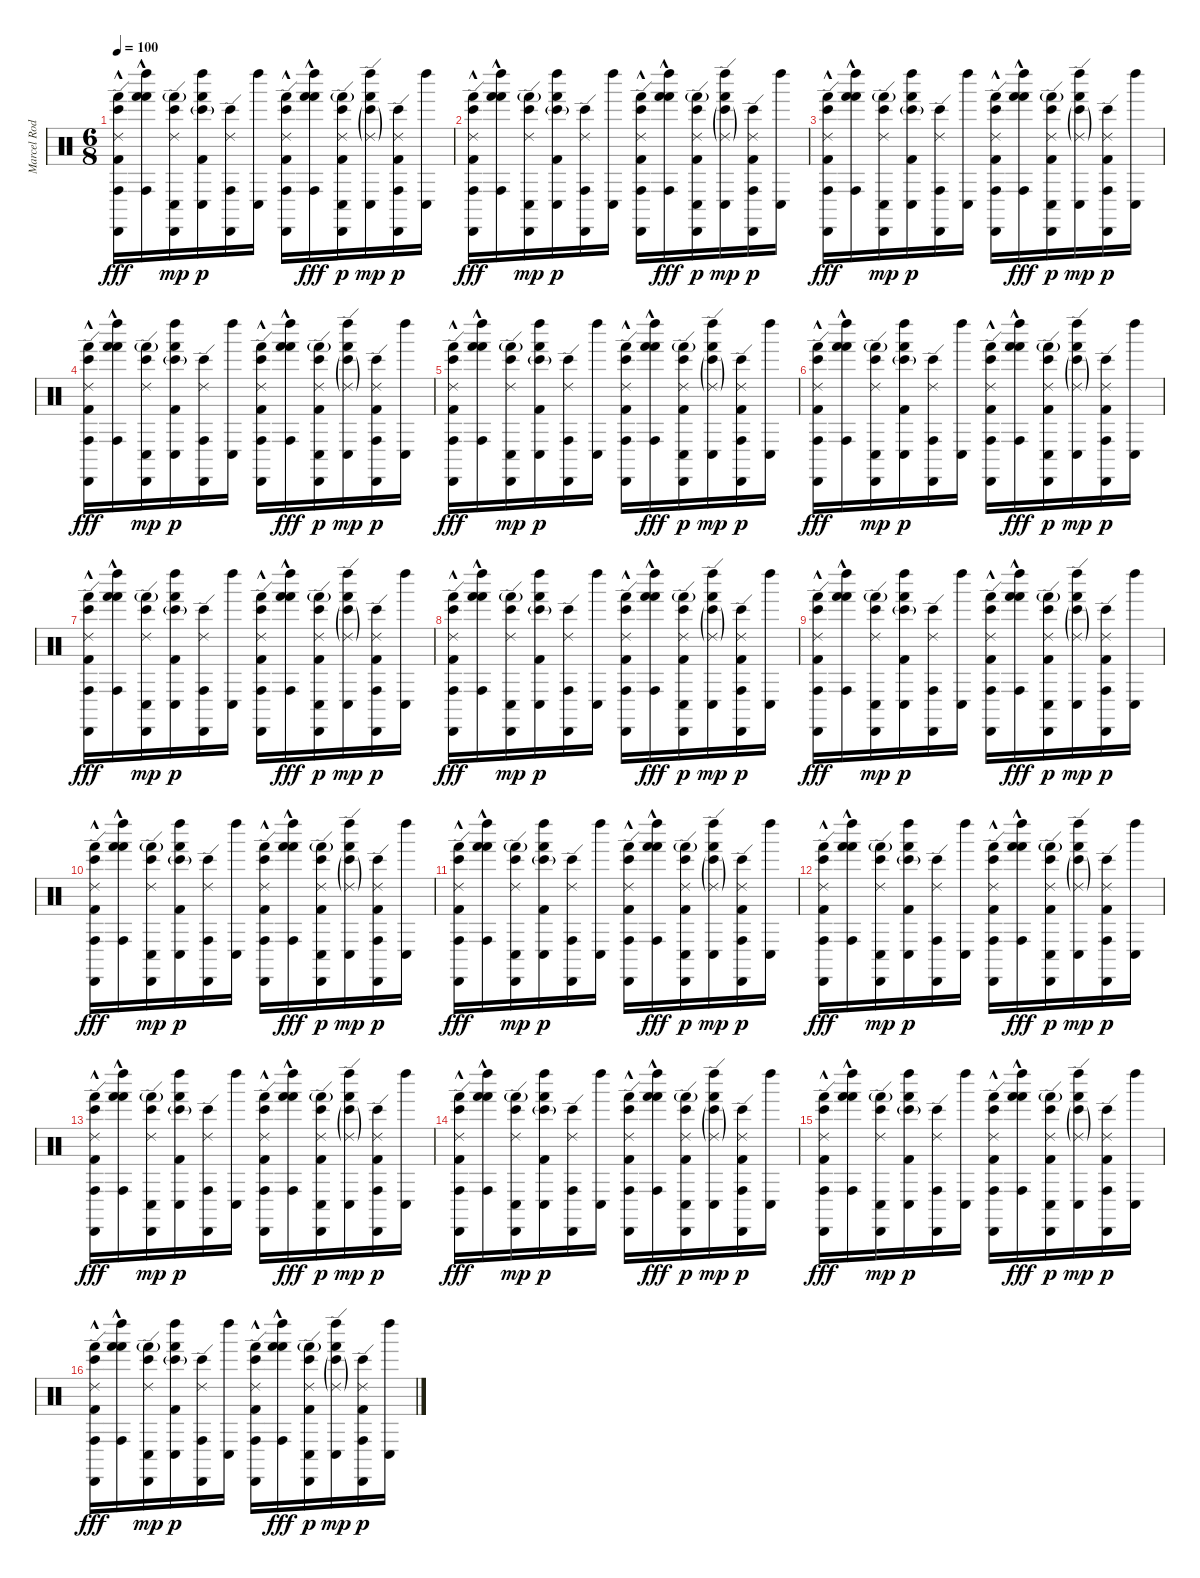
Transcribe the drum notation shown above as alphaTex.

\track ("Marcel Rodriguez & Thomas Pridgen" "Marcel Rod") {instrument percussion}
\staff {score}
\articulation defaults
\ts (6 8)
\tempo 100
\clef neutral
\ks c
("Ride (edge) 2" "Cabasa (hit)" "Bongo High (hit)" "Conga high (hit)" "Hand (hit)"{hac} "Kick (hit) 2").16{dy fff} ("Left Maraca (hit)" "Hand (hit)" "Conga high (hit)" "Hand (hit)"{hac}).16 ("Ride (edge) 2" "Cabasa (hit)" "Bongo High (hit)" "Conga low (hit)" "Hand (hit)"{g}).16{dy mp} ("Left Maraca (hit)" "Hand (hit)" "Conga low (hit)" "Bongo High (hit)"{g} "Kick (hit) 2").16{dy p} ("Ride (edge) 2" "Cabasa (hit)" "Bongo High (hit)" "Conga high (hit)").16 ("Left Maraca (hit)" "Conga low (hit)").16 ("Ride (edge) 2" "Cabasa (hit)" "Bongo High (hit)" "Conga high (hit)" "Hand (hit)"{hac} "Kick (hit) 2").16 ("Left Maraca (hit)" "Hand (hit)" "Conga high (hit)" "Hand (hit)"{hac}).16{dy fff} ("Ride (edge) 2" "Cabasa (hit)" "Bongo High (hit)" "Conga low (hit)" "Hand (hit)"{g} "Kick (hit) 2").16{dy p} ("Ride (edge) 2"{g} "Left Maraca (hit)" "Hand (hit)" "Conga low (hit)" "Bongo High (hit)"{g}).16{dy mp} ("Ride (edge) 2" "Cabasa (hit)" "Bongo High (hit)" "Conga high (hit)" "Kick (hit) 2").16{dy p} ("Left Maraca (hit)" "Conga low (hit)").16 |
("Ride (edge) 2" "Cabasa (hit)" "Bongo High (hit)" "Conga high (hit)" "Hand (hit)"{hac} "Kick (hit) 2").16{dy fff} ("Left Maraca (hit)" "Hand (hit)" "Conga high (hit)" "Hand (hit)"{hac}).16 ("Ride (edge) 2" "Cabasa (hit)" "Bongo High (hit)" "Conga low (hit)" "Hand (hit)"{g}).16{dy mp} ("Left Maraca (hit)" "Hand (hit)" "Conga low (hit)" "Bongo High (hit)"{g} "Kick (hit) 2").16{dy p} ("Ride (edge) 2" "Cabasa (hit)" "Bongo High (hit)" "Conga high (hit)").16 ("Left Maraca (hit)" "Conga low (hit)").16 ("Ride (edge) 2" "Cabasa (hit)" "Bongo High (hit)" "Conga high (hit)" "Hand (hit)"{hac} "Kick (hit) 2").16 ("Left Maraca (hit)" "Hand (hit)" "Conga high (hit)" "Hand (hit)"{hac}).16{dy fff} ("Ride (edge) 2" "Cabasa (hit)" "Bongo High (hit)" "Conga low (hit)" "Hand (hit)"{g} "Kick (hit) 2").16{dy p} ("Ride (edge) 2"{g} "Left Maraca (hit)" "Hand (hit)" "Conga low (hit)" "Bongo High (hit)"{g}).16{dy mp} ("Ride (edge) 2" "Cabasa (hit)" "Bongo High (hit)" "Conga high (hit)" "Kick (hit) 2").16{dy p} ("Left Maraca (hit)" "Conga low (hit)").16 |
("Ride (edge) 2" "Cabasa (hit)" "Bongo High (hit)" "Conga high (hit)" "Hand (hit)"{hac} "Kick (hit) 2").16{dy fff} ("Left Maraca (hit)" "Hand (hit)" "Conga high (hit)" "Hand (hit)"{hac}).16 ("Ride (edge) 2" "Cabasa (hit)" "Bongo High (hit)" "Conga low (hit)" "Hand (hit)"{g}).16{dy mp} ("Left Maraca (hit)" "Hand (hit)" "Conga low (hit)" "Bongo High (hit)"{g} "Kick (hit) 2").16{dy p} ("Ride (edge) 2" "Cabasa (hit)" "Bongo High (hit)" "Conga high (hit)").16 ("Left Maraca (hit)" "Conga low (hit)").16 ("Ride (edge) 2" "Cabasa (hit)" "Bongo High (hit)" "Conga high (hit)" "Hand (hit)"{hac} "Kick (hit) 2").16 ("Left Maraca (hit)" "Hand (hit)" "Conga high (hit)" "Hand (hit)"{hac}).16{dy fff} ("Ride (edge) 2" "Cabasa (hit)" "Bongo High (hit)" "Conga low (hit)" "Hand (hit)"{g} "Kick (hit) 2").16{dy p} ("Ride (edge) 2"{g} "Left Maraca (hit)" "Hand (hit)" "Conga low (hit)" "Bongo High (hit)"{g}).16{dy mp} ("Ride (edge) 2" "Cabasa (hit)" "Bongo High (hit)" "Conga high (hit)" "Kick (hit) 2").16{dy p} ("Left Maraca (hit)" "Conga low (hit)").16 |
("Ride (edge) 2" "Cabasa (hit)" "Bongo High (hit)" "Conga high (hit)" "Hand (hit)"{hac} "Kick (hit) 2").16{dy fff} ("Left Maraca (hit)" "Hand (hit)" "Conga high (hit)" "Hand (hit)"{hac}).16 ("Ride (edge) 2" "Cabasa (hit)" "Bongo High (hit)" "Conga low (hit)" "Hand (hit)"{g}).16{dy mp} ("Left Maraca (hit)" "Hand (hit)" "Conga low (hit)" "Bongo High (hit)"{g} "Kick (hit) 2").16{dy p} ("Ride (edge) 2" "Cabasa (hit)" "Bongo High (hit)" "Conga high (hit)").16 ("Left Maraca (hit)" "Conga low (hit)").16 ("Ride (edge) 2" "Cabasa (hit)" "Bongo High (hit)" "Conga high (hit)" "Hand (hit)"{hac} "Kick (hit) 2").16 ("Left Maraca (hit)" "Hand (hit)" "Conga high (hit)" "Hand (hit)"{hac}).16{dy fff} ("Ride (edge) 2" "Cabasa (hit)" "Bongo High (hit)" "Conga low (hit)" "Hand (hit)"{g} "Kick (hit) 2").16{dy p} ("Ride (edge) 2"{g} "Left Maraca (hit)" "Hand (hit)" "Conga low (hit)" "Bongo High (hit)"{g}).16{dy mp} ("Ride (edge) 2" "Cabasa (hit)" "Bongo High (hit)" "Conga high (hit)" "Kick (hit) 2").16{dy p} ("Left Maraca (hit)" "Conga low (hit)").16 |
("Ride (edge) 2" "Cabasa (hit)" "Bongo High (hit)" "Conga high (hit)" "Hand (hit)"{hac} "Kick (hit) 2").16{dy fff} ("Left Maraca (hit)" "Hand (hit)" "Conga high (hit)" "Hand (hit)"{hac}).16 ("Ride (edge) 2" "Cabasa (hit)" "Bongo High (hit)" "Conga low (hit)" "Hand (hit)"{g}).16{dy mp} ("Left Maraca (hit)" "Hand (hit)" "Conga low (hit)" "Bongo High (hit)"{g} "Kick (hit) 2").16{dy p} ("Ride (edge) 2" "Cabasa (hit)" "Bongo High (hit)" "Conga high (hit)").16 ("Left Maraca (hit)" "Conga low (hit)").16 ("Ride (edge) 2" "Cabasa (hit)" "Bongo High (hit)" "Conga high (hit)" "Hand (hit)"{hac} "Kick (hit) 2").16 ("Left Maraca (hit)" "Hand (hit)" "Conga high (hit)" "Hand (hit)"{hac}).16{dy fff} ("Ride (edge) 2" "Cabasa (hit)" "Bongo High (hit)" "Conga low (hit)" "Hand (hit)"{g} "Kick (hit) 2").16{dy p} ("Ride (edge) 2"{g} "Left Maraca (hit)" "Hand (hit)" "Conga low (hit)" "Bongo High (hit)"{g}).16{dy mp} ("Ride (edge) 2" "Cabasa (hit)" "Bongo High (hit)" "Conga high (hit)" "Kick (hit) 2").16{dy p} ("Left Maraca (hit)" "Conga low (hit)").16 |
("Ride (edge) 2" "Cabasa (hit)" "Bongo High (hit)" "Conga high (hit)" "Hand (hit)"{hac} "Kick (hit) 2").16{dy fff} ("Left Maraca (hit)" "Hand (hit)" "Conga high (hit)" "Hand (hit)"{hac}).16 ("Ride (edge) 2" "Cabasa (hit)" "Bongo High (hit)" "Conga low (hit)" "Hand (hit)"{g}).16{dy mp} ("Left Maraca (hit)" "Hand (hit)" "Conga low (hit)" "Bongo High (hit)"{g} "Kick (hit) 2").16{dy p} ("Ride (edge) 2" "Cabasa (hit)" "Bongo High (hit)" "Conga high (hit)").16 ("Left Maraca (hit)" "Conga low (hit)").16 ("Ride (edge) 2" "Cabasa (hit)" "Bongo High (hit)" "Conga high (hit)" "Hand (hit)"{hac} "Kick (hit) 2").16 ("Left Maraca (hit)" "Hand (hit)" "Conga high (hit)" "Hand (hit)"{hac}).16{dy fff} ("Ride (edge) 2" "Cabasa (hit)" "Bongo High (hit)" "Conga low (hit)" "Hand (hit)"{g} "Kick (hit) 2").16{dy p} ("Ride (edge) 2"{g} "Left Maraca (hit)" "Hand (hit)" "Conga low (hit)" "Bongo High (hit)"{g}).16{dy mp} ("Ride (edge) 2" "Cabasa (hit)" "Bongo High (hit)" "Conga high (hit)" "Kick (hit) 2").16{dy p} ("Left Maraca (hit)" "Conga low (hit)").16 |
("Ride (edge) 2" "Cabasa (hit)" "Bongo High (hit)" "Conga high (hit)" "Hand (hit)"{hac} "Kick (hit) 2").16{dy fff} ("Left Maraca (hit)" "Hand (hit)" "Conga high (hit)" "Hand (hit)"{hac}).16 ("Ride (edge) 2" "Cabasa (hit)" "Bongo High (hit)" "Conga low (hit)" "Hand (hit)"{g}).16{dy mp} ("Left Maraca (hit)" "Hand (hit)" "Conga low (hit)" "Bongo High (hit)"{g} "Kick (hit) 2").16{dy p} ("Ride (edge) 2" "Cabasa (hit)" "Bongo High (hit)" "Conga high (hit)").16 ("Left Maraca (hit)" "Conga low (hit)").16 ("Ride (edge) 2" "Cabasa (hit)" "Bongo High (hit)" "Conga high (hit)" "Hand (hit)"{hac} "Kick (hit) 2").16 ("Left Maraca (hit)" "Hand (hit)" "Conga high (hit)" "Hand (hit)"{hac}).16{dy fff} ("Ride (edge) 2" "Cabasa (hit)" "Bongo High (hit)" "Conga low (hit)" "Hand (hit)"{g} "Kick (hit) 2").16{dy p} ("Ride (edge) 2"{g} "Left Maraca (hit)" "Hand (hit)" "Conga low (hit)" "Bongo High (hit)"{g}).16{dy mp} ("Ride (edge) 2" "Cabasa (hit)" "Bongo High (hit)" "Conga high (hit)" "Kick (hit) 2").16{dy p} ("Left Maraca (hit)" "Conga low (hit)").16 |
("Ride (edge) 2" "Cabasa (hit)" "Bongo High (hit)" "Conga high (hit)" "Hand (hit)"{hac} "Kick (hit) 2").16{dy fff} ("Left Maraca (hit)" "Hand (hit)" "Conga high (hit)" "Hand (hit)"{hac}).16 ("Ride (edge) 2" "Cabasa (hit)" "Bongo High (hit)" "Conga low (hit)" "Hand (hit)"{g}).16{dy mp} ("Left Maraca (hit)" "Hand (hit)" "Conga low (hit)" "Bongo High (hit)"{g} "Kick (hit) 2").16{dy p} ("Ride (edge) 2" "Cabasa (hit)" "Bongo High (hit)" "Conga high (hit)").16 ("Left Maraca (hit)" "Conga low (hit)").16 ("Ride (edge) 2" "Cabasa (hit)" "Bongo High (hit)" "Conga high (hit)" "Hand (hit)"{hac} "Kick (hit) 2").16 ("Left Maraca (hit)" "Hand (hit)" "Conga high (hit)" "Hand (hit)"{hac}).16{dy fff} ("Ride (edge) 2" "Cabasa (hit)" "Bongo High (hit)" "Conga low (hit)" "Hand (hit)"{g} "Kick (hit) 2").16{dy p} ("Ride (edge) 2"{g} "Left Maraca (hit)" "Hand (hit)" "Conga low (hit)" "Bongo High (hit)"{g}).16{dy mp} ("Ride (edge) 2" "Cabasa (hit)" "Bongo High (hit)" "Conga high (hit)" "Kick (hit) 2").16{dy p} ("Left Maraca (hit)" "Conga low (hit)").16 |
("Ride (edge) 2" "Cabasa (hit)" "Bongo High (hit)" "Conga high (hit)" "Hand (hit)"{hac} "Kick (hit) 2").16{dy fff} ("Left Maraca (hit)" "Hand (hit)" "Conga high (hit)" "Hand (hit)"{hac}).16 ("Ride (edge) 2" "Cabasa (hit)" "Bongo High (hit)" "Conga low (hit)" "Hand (hit)"{g}).16{dy mp} ("Left Maraca (hit)" "Hand (hit)" "Conga low (hit)" "Bongo High (hit)"{g} "Kick (hit) 2").16{dy p} ("Ride (edge) 2" "Cabasa (hit)" "Bongo High (hit)" "Conga high (hit)").16 ("Left Maraca (hit)" "Conga low (hit)").16 ("Ride (edge) 2" "Cabasa (hit)" "Bongo High (hit)" "Conga high (hit)" "Hand (hit)"{hac} "Kick (hit) 2").16 ("Left Maraca (hit)" "Hand (hit)" "Conga high (hit)" "Hand (hit)"{hac}).16{dy fff} ("Ride (edge) 2" "Cabasa (hit)" "Bongo High (hit)" "Conga low (hit)" "Hand (hit)"{g} "Kick (hit) 2").16{dy p} ("Ride (edge) 2"{g} "Left Maraca (hit)" "Hand (hit)" "Conga low (hit)" "Bongo High (hit)"{g}).16{dy mp} ("Ride (edge) 2" "Cabasa (hit)" "Bongo High (hit)" "Conga high (hit)" "Kick (hit) 2").16{dy p} ("Left Maraca (hit)" "Conga low (hit)").16 |
("Ride (edge) 2" "Cabasa (hit)" "Bongo High (hit)" "Conga high (hit)" "Hand (hit)"{hac} "Kick (hit) 2").16{dy fff} ("Left Maraca (hit)" "Hand (hit)" "Conga high (hit)" "Hand (hit)"{hac}).16 ("Ride (edge) 2" "Cabasa (hit)" "Bongo High (hit)" "Conga low (hit)" "Hand (hit)"{g}).16{dy mp} ("Left Maraca (hit)" "Hand (hit)" "Conga low (hit)" "Bongo High (hit)"{g} "Kick (hit) 2").16{dy p} ("Ride (edge) 2" "Cabasa (hit)" "Bongo High (hit)" "Conga high (hit)").16 ("Left Maraca (hit)" "Conga low (hit)").16 ("Ride (edge) 2" "Cabasa (hit)" "Bongo High (hit)" "Conga high (hit)" "Hand (hit)"{hac} "Kick (hit) 2").16 ("Left Maraca (hit)" "Hand (hit)" "Conga high (hit)" "Hand (hit)"{hac}).16{dy fff} ("Ride (edge) 2" "Cabasa (hit)" "Bongo High (hit)" "Conga low (hit)" "Hand (hit)"{g} "Kick (hit) 2").16{dy p} ("Ride (edge) 2"{g} "Left Maraca (hit)" "Hand (hit)" "Conga low (hit)" "Bongo High (hit)"{g}).16{dy mp} ("Ride (edge) 2" "Cabasa (hit)" "Bongo High (hit)" "Conga high (hit)" "Kick (hit) 2").16{dy p} ("Left Maraca (hit)" "Conga low (hit)").16 |
("Ride (edge) 2" "Cabasa (hit)" "Bongo High (hit)" "Conga high (hit)" "Hand (hit)"{hac} "Kick (hit) 2").16{dy fff} ("Left Maraca (hit)" "Hand (hit)" "Conga high (hit)" "Hand (hit)"{hac}).16 ("Ride (edge) 2" "Cabasa (hit)" "Bongo High (hit)" "Conga low (hit)" "Hand (hit)"{g}).16{dy mp} ("Left Maraca (hit)" "Hand (hit)" "Conga low (hit)" "Bongo High (hit)"{g} "Kick (hit) 2").16{dy p} ("Ride (edge) 2" "Cabasa (hit)" "Bongo High (hit)" "Conga high (hit)").16 ("Left Maraca (hit)" "Conga low (hit)").16 ("Ride (edge) 2" "Cabasa (hit)" "Bongo High (hit)" "Conga high (hit)" "Hand (hit)"{hac} "Kick (hit) 2").16 ("Left Maraca (hit)" "Hand (hit)" "Conga high (hit)" "Hand (hit)"{hac}).16{dy fff} ("Ride (edge) 2" "Cabasa (hit)" "Bongo High (hit)" "Conga low (hit)" "Hand (hit)"{g} "Kick (hit) 2").16{dy p} ("Ride (edge) 2"{g} "Left Maraca (hit)" "Hand (hit)" "Conga low (hit)" "Bongo High (hit)"{g}).16{dy mp} ("Ride (edge) 2" "Cabasa (hit)" "Bongo High (hit)" "Conga high (hit)" "Kick (hit) 2").16{dy p} ("Left Maraca (hit)" "Conga low (hit)").16 |
("Ride (edge) 2" "Cabasa (hit)" "Bongo High (hit)" "Conga high (hit)" "Hand (hit)"{hac} "Kick (hit) 2").16{dy fff} ("Left Maraca (hit)" "Hand (hit)" "Conga high (hit)" "Hand (hit)"{hac}).16 ("Ride (edge) 2" "Cabasa (hit)" "Bongo High (hit)" "Conga low (hit)" "Hand (hit)"{g}).16{dy mp} ("Left Maraca (hit)" "Hand (hit)" "Conga low (hit)" "Bongo High (hit)"{g} "Kick (hit) 2").16{dy p} ("Ride (edge) 2" "Cabasa (hit)" "Bongo High (hit)" "Conga high (hit)").16 ("Left Maraca (hit)" "Conga low (hit)").16 ("Ride (edge) 2" "Cabasa (hit)" "Bongo High (hit)" "Conga high (hit)" "Hand (hit)"{hac} "Kick (hit) 2").16 ("Left Maraca (hit)" "Hand (hit)" "Conga high (hit)" "Hand (hit)"{hac}).16{dy fff} ("Ride (edge) 2" "Cabasa (hit)" "Bongo High (hit)" "Conga low (hit)" "Hand (hit)"{g} "Kick (hit) 2").16{dy p} ("Ride (edge) 2"{g} "Left Maraca (hit)" "Hand (hit)" "Conga low (hit)" "Bongo High (hit)"{g}).16{dy mp} ("Ride (edge) 2" "Cabasa (hit)" "Bongo High (hit)" "Conga high (hit)" "Kick (hit) 2").16{dy p} ("Left Maraca (hit)" "Conga low (hit)").16 |
("Ride (edge) 2" "Cabasa (hit)" "Bongo High (hit)" "Conga high (hit)" "Hand (hit)"{hac} "Kick (hit) 2").16{dy fff} ("Left Maraca (hit)" "Hand (hit)" "Conga high (hit)" "Hand (hit)"{hac}).16 ("Ride (edge) 2" "Cabasa (hit)" "Bongo High (hit)" "Conga low (hit)" "Hand (hit)"{g}).16{dy mp} ("Left Maraca (hit)" "Hand (hit)" "Conga low (hit)" "Bongo High (hit)"{g} "Kick (hit) 2").16{dy p} ("Ride (edge) 2" "Cabasa (hit)" "Bongo High (hit)" "Conga high (hit)").16 ("Left Maraca (hit)" "Conga low (hit)").16 ("Ride (edge) 2" "Cabasa (hit)" "Bongo High (hit)" "Conga high (hit)" "Hand (hit)"{hac} "Kick (hit) 2").16 ("Left Maraca (hit)" "Hand (hit)" "Conga high (hit)" "Hand (hit)"{hac}).16{dy fff} ("Ride (edge) 2" "Cabasa (hit)" "Bongo High (hit)" "Conga low (hit)" "Hand (hit)"{g} "Kick (hit) 2").16{dy p} ("Ride (edge) 2"{g} "Left Maraca (hit)" "Hand (hit)" "Conga low (hit)" "Bongo High (hit)"{g}).16{dy mp} ("Ride (edge) 2" "Cabasa (hit)" "Bongo High (hit)" "Conga high (hit)" "Kick (hit) 2").16{dy p} ("Left Maraca (hit)" "Conga low (hit)").16 |
("Ride (edge) 2" "Cabasa (hit)" "Bongo High (hit)" "Conga high (hit)" "Hand (hit)"{hac} "Kick (hit) 2").16{dy fff} ("Left Maraca (hit)" "Hand (hit)" "Conga high (hit)" "Hand (hit)"{hac}).16 ("Ride (edge) 2" "Cabasa (hit)" "Bongo High (hit)" "Conga low (hit)" "Hand (hit)"{g}).16{dy mp} ("Left Maraca (hit)" "Hand (hit)" "Conga low (hit)" "Bongo High (hit)"{g} "Kick (hit) 2").16{dy p} ("Ride (edge) 2" "Cabasa (hit)" "Bongo High (hit)" "Conga high (hit)").16 ("Left Maraca (hit)" "Conga low (hit)").16 ("Ride (edge) 2" "Cabasa (hit)" "Bongo High (hit)" "Conga high (hit)" "Hand (hit)"{hac} "Kick (hit) 2").16 ("Left Maraca (hit)" "Hand (hit)" "Conga high (hit)" "Hand (hit)"{hac}).16{dy fff} ("Ride (edge) 2" "Cabasa (hit)" "Bongo High (hit)" "Conga low (hit)" "Hand (hit)"{g} "Kick (hit) 2").16{dy p} ("Ride (edge) 2"{g} "Left Maraca (hit)" "Hand (hit)" "Conga low (hit)" "Bongo High (hit)"{g}).16{dy mp} ("Ride (edge) 2" "Cabasa (hit)" "Bongo High (hit)" "Conga high (hit)" "Kick (hit) 2").16{dy p} ("Left Maraca (hit)" "Conga low (hit)").16 |
("Ride (edge) 2" "Cabasa (hit)" "Bongo High (hit)" "Conga high (hit)" "Hand (hit)"{hac} "Kick (hit) 2").16{dy fff} ("Left Maraca (hit)" "Hand (hit)" "Conga high (hit)" "Hand (hit)"{hac}).16 ("Ride (edge) 2" "Cabasa (hit)" "Bongo High (hit)" "Conga low (hit)" "Hand (hit)"{g}).16{dy mp} ("Left Maraca (hit)" "Hand (hit)" "Conga low (hit)" "Bongo High (hit)"{g} "Kick (hit) 2").16{dy p} ("Ride (edge) 2" "Cabasa (hit)" "Bongo High (hit)" "Conga high (hit)").16 ("Left Maraca (hit)" "Conga low (hit)").16 ("Ride (edge) 2" "Cabasa (hit)" "Bongo High (hit)" "Conga high (hit)" "Hand (hit)"{hac} "Kick (hit) 2").16 ("Left Maraca (hit)" "Hand (hit)" "Conga high (hit)" "Hand (hit)"{hac}).16{dy fff} ("Ride (edge) 2" "Cabasa (hit)" "Bongo High (hit)" "Conga low (hit)" "Hand (hit)"{g} "Kick (hit) 2").16{dy p} ("Ride (edge) 2"{g} "Left Maraca (hit)" "Hand (hit)" "Conga low (hit)" "Bongo High (hit)"{g}).16{dy mp} ("Ride (edge) 2" "Cabasa (hit)" "Bongo High (hit)" "Conga high (hit)" "Kick (hit) 2").16{dy p} ("Left Maraca (hit)" "Conga low (hit)").16 |
("Ride (edge) 2" "Cabasa (hit)" "Bongo High (hit)" "Conga high (hit)" "Hand (hit)"{hac} "Kick (hit) 2").16{dy fff} ("Left Maraca (hit)" "Hand (hit)" "Conga high (hit)" "Hand (hit)"{hac}).16 ("Ride (edge) 2" "Cabasa (hit)" "Bongo High (hit)" "Conga low (hit)" "Hand (hit)"{g}).16{dy mp} ("Left Maraca (hit)" "Hand (hit)" "Conga low (hit)" "Bongo High (hit)"{g} "Kick (hit) 2").16{dy p} ("Ride (edge) 2" "Cabasa (hit)" "Bongo High (hit)" "Conga high (hit)").16 ("Left Maraca (hit)" "Conga low (hit)").16 ("Ride (edge) 2" "Cabasa (hit)" "Bongo High (hit)" "Conga high (hit)" "Hand (hit)"{hac} "Kick (hit) 2").16 ("Left Maraca (hit)" "Hand (hit)" "Conga high (hit)" "Hand (hit)"{hac}).16{dy fff} ("Ride (edge) 2" "Cabasa (hit)" "Bongo High (hit)" "Conga low (hit)" "Hand (hit)"{g} "Kick (hit) 2").16{dy p} ("Ride (edge) 2"{g} "Left Maraca (hit)" "Hand (hit)" "Conga low (hit)" "Bongo High (hit)"{g}).16{dy mp} ("Ride (edge) 2" "Cabasa (hit)" "Bongo High (hit)" "Conga high (hit)" "Kick (hit) 2").16{dy p} ("Left Maraca (hit)" "Conga low (hit)").16
